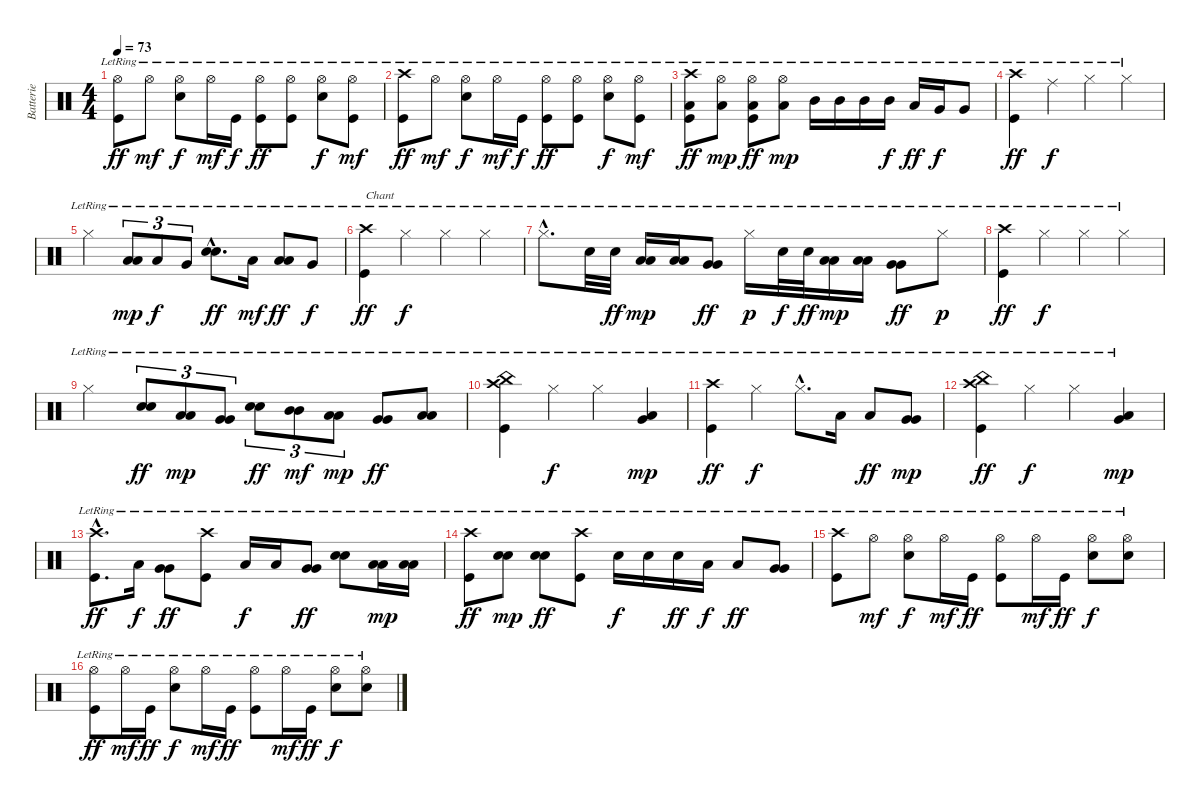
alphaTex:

\track ("Batterie" "Batterie") {instrument percussion}
\staff {score}
\articulation defaults
\ts (4 4)
\tempo 73
\clef neutral
\ks c
("Hi-Hat (open)"{lr} "Kick (hit)"{lr}).8{dy ff} "Hi-Hat (open)"{lr}.8{dy mf} ("Hi-Hat (open)"{lr} "Snare (hit) 2"{lr}).8{dy f} "Hi-Hat (open)"{lr}.16{dy mf} "Kick (hit)"{lr}.16{dy f} ("Hi-Hat (open)"{lr} "Kick (hit)"{lr}).8{dy ff} ("Hi-Hat (open)"{lr} "Kick (hit)"{lr}).8 ("Hi-Hat (open)"{lr} "Snare (hit) 2"{lr}).8{dy f} ("Hi-Hat (open)"{lr} "Kick (hit)"{lr}).8{dy mf} |
("Crash high (hit)"{lr} "Kick (hit)"{lr}).8{dy ff} "Hi-Hat (open)"{lr}.8{dy mf} ("Hi-Hat (open)"{lr} "Snare (hit) 2"{lr}).8{dy f} "Hi-Hat (open)"{lr}.16{dy mf} "Kick (hit)"{lr}.16{dy f} ("Hi-Hat (open)"{lr} "Kick (hit)"{lr}).8{dy ff} ("Hi-Hat (open)"{lr} "Kick (hit)"{lr}).8 ("Hi-Hat (open)"{lr} "Snare (hit) 2"{lr}).8{dy f} ("Hi-Hat (open)"{lr} "Kick (hit)"{lr}).8{dy mf} |
("Crash high (hit)"{lr} "Low Floor Tom (hit)"{lr} "Kick (hit)"{lr}).8{dy ff} ("Hi-Hat (open)"{lr} "Low Floor Tom (hit)"{lr}).8{dy mp} ("Hi-Hat (open)"{lr} "Low Floor Tom (hit)"{lr} "Kick (hit)"{lr}).8{dy ff} ("Hi-Hat (open)"{lr} "Low Floor Tom (hit)"{lr}).8{dy mp} "Mid Tom (hit)"{lr}.16 "Mid Tom (hit)"{lr}.16 "Mid Tom (hit)"{lr}.16 "Mid Tom (hit)"{lr}.16{dy f} "Low Tom (hit)"{lr}.16{dy ff} "Very Low Tom (hit)"{lr}.16{dy f} "Very Low Tom (hit)"{lr}.8 |
("Crash high (hit)"{lr} "Kick (hit)"{lr}).4{dy ff} "Ride (middle)"{lr}.4{dy f} "Hi-Hat (closed)"{lr}.4 "Hi-Hat (closed)"{lr}.4 |
"Hi-Hat (closed)"{lr}.4 ("Low Tom (hit)"{lr} "Low Tom (hit)"{lr}).8{tu (3 2) bu 60 dy mp} "Low Tom (hit)"{lr}.8{tu (3 2) dy f} "Very Low Tom (hit)"{lr}.8{tu (3 2)} ("Snare (hit) 2"{hac lr} "Snare (hit) 2"{hac lr}).8{d bu 60 dy ff} "Low Tom (hit)"{lr}.16{bu 60 dy mf} ("Low Tom (hit)"{lr} "Low Tom (hit)"{lr}).8{dy ff} "Very Low Tom (hit)"{lr}.8{dy f} |
("Crash high (hit)"{lr} "Kick (hit)"{lr}).4{txt "Chant" dy ff} "Hi-Hat (closed)"{lr}.4{dy f} "Hi-Hat (closed)"{lr}.4 "Hi-Hat (closed)"{lr}.4 |
"Hi-Hat (closed)"{hac lr}.8{d} "Snare (hit) 2"{lr}.32 "Snare (hit) 2"{lr}.32{dy ff} ("Low Tom (hit)"{lr} "Low Tom (hit)"{lr}).16{bu 60 dy mp} ("Low Tom (hit)"{lr} "Low Tom (hit)"{lr}).16{bu 60} ("Very Low Tom (hit)"{lr} "Very Low Tom (hit)"{lr}).8{bu 60 dy ff} "Hi-Hat (closed)"{lr}.16{dy p} "Snare (hit) 2"{lr}.32{dy f} "Snare (hit) 2"{lr}.32{dy ff} ("Low Tom (hit)"{lr} "Low Tom (hit)"{lr}).16{bu 60 dy mp} ("Low Tom (hit)"{lr} "Low Tom (hit)"{lr}).16{bu 60} ("Very Low Tom (hit)"{lr} "Very Low Tom (hit)"{lr}).8{bu 60 dy ff} "Hi-Hat (closed)"{lr}.8{dy p} |
("Crash high (hit)"{lr} "Kick (hit)"{lr}).4{dy ff} "Hi-Hat (closed)"{lr}.4{dy f} "Hi-Hat (closed)"{lr}.4 "Hi-Hat (closed)"{lr}.4 |
"Hi-Hat (closed)"{lr}.4 ("Snare (hit) 2"{lr} "Snare (hit) 2"{lr}).8{tu (3 2) bu 60 dy ff} ("Low Tom (hit)"{lr} "Low Tom (hit)"{lr}).8{tu (3 2) bu 60 dy mp} ("Very Low Tom (hit)"{lr} "Very Low Tom (hit)"{lr}).8{tu (3 2) bu 60} ("Snare (hit) 2"{lr} "Snare (hit) 2"{lr}).8{tu (3 2) bu 60 dy ff} ("Mid Tom (hit)"{lr} "Mid Tom (hit)"{lr}).8{tu (3 2) bu 60 dy mf} ("Low Tom (hit)"{lr} "Low Tom (hit)"{lr}).8{tu (3 2) bu 60 dy mp} ("Very Low Tom (hit)"{lr} "Very Low Tom (hit)"{lr}).8{bu 60 dy ff} ("Low Floor Tom (hit)"{lr} "Low Floor Tom (hit)"{lr}).8{bu 60} |
("China (hit)"{lr} "Crash high (hit)"{lr} "Kick (hit)"{lr}).4 "Hi-Hat (closed)"{lr}.4{dy f} "Hi-Hat (closed)"{lr}.4 ("Very Low Tom (hit)"{lr} "Low Tom (hit)"{lr}).4{bu 60 dy mp} |
("Crash high (hit)"{lr} "Kick (hit)"{lr}).4{dy ff} "Hi-Hat (closed)"{lr}.4{dy f} "Hi-Hat (closed)"{hac lr}.8{d} "Low Tom (hit)"{lr}.16 "Low Tom (hit)"{lr}.8{dy ff} ("Very Low Tom (hit)"{lr} "Very Low Tom (hit)"{lr}).8{bu 60 dy mp} |
("China (hit)"{lr} "Crash high (hit)"{lr} "Kick (hit)"{lr}).4{dy ff} "Hi-Hat (closed)"{lr}.4{dy f} "Hi-Hat (closed)"{lr}.4 ("Very Low Tom (hit)"{lr} "Low Tom (hit)"{lr}).4{bu 60 dy mp} |
("Crash high (hit)"{hac lr} "Kick (hit)"{hac lr}).8{d dy ff} "Low Tom (hit)"{lr}.16{dy f} ("Very Low Tom (hit)"{lr} "Very Low Tom (hit)"{lr}).8{bu 60 dy ff} ("Crash high (hit)"{lr} "Kick (hit)"{lr}).8 "Low Tom (hit)"{lr}.16{dy f} "Low Tom (hit)"{lr}.16 ("Very Low Tom (hit)"{lr} "Very Low Tom (hit)"{lr}).8{bu 60 dy ff} ("Snare (hit) 2"{lr} "Snare (hit) 2"{lr}).8{bu 60} ("Low Tom (hit)"{lr} "Low Tom (hit)"{lr}).16{bu 60 dy mp} ("Low Tom (hit)"{lr} "Low Tom (hit)"{lr}).16{bu 60} |
("Crash high (hit)"{lr} "Kick (hit)"{lr}).8{dy ff} ("Snare (hit) 2"{lr} "Snare (hit) 2"{lr}).8{bu 60 dy mp} ("Snare (hit) 2"{lr} "Snare (hit) 2"{lr}).8{bu 60 dy ff} ("Crash high (hit)"{lr} "Kick (hit)"{lr}).8 "Snare (hit) 2"{lr}.16{dy f} "Snare (hit) 2"{lr}.16 "Snare (hit) 2"{lr}.16{dy ff} "Low Tom (hit)"{lr}.16{dy f} "Low Tom (hit)"{lr}.8{dy ff} ("Very Low Tom (hit)"{lr} "Very Low Tom (hit)"{lr}).8{bu 60} |
("Crash high (hit)"{lr} "Kick (hit)"{lr}).8 "Hi-Hat (open)"{lr}.8{dy mf} ("Hi-Hat (open)"{lr} "Snare (hit) 2"{lr}).8{dy f} "Hi-Hat (open)"{lr}.16{dy mf} "Kick (hit)"{lr}.16{dy ff} ("Hi-Hat (open)"{lr} "Kick (hit)"{lr}).8 "Hi-Hat (open)"{lr}.16{dy mf} "Kick (hit)"{lr}.16{dy ff} ("Hi-Hat (open)"{lr} "Snare (hit) 2"{lr}).8{dy f} ("Hi-Hat (open)"{lr} "Snare (hit) 2"{lr}).8 |
("Hi-Hat (open)"{lr} "Kick (hit)"{lr}).8{dy ff} "Hi-Hat (open)"{lr}.16{dy mf} "Kick (hit)"{lr}.16{dy ff} ("Hi-Hat (open)"{lr} "Snare (hit) 2"{lr}).8{dy f} "Hi-Hat (open)"{lr}.16{dy mf} "Kick (hit)"{lr}.16{dy ff} ("Hi-Hat (open)"{lr} "Kick (hit)"{lr}).8 "Hi-Hat (open)"{lr}.16{dy mf} "Kick (hit)"{lr}.16{dy ff} ("Hi-Hat (open)"{lr} "Snare (hit) 2"{lr}).8{dy f} ("Hi-Hat (open)"{lr} "Snare (hit) 2"{lr}).8
